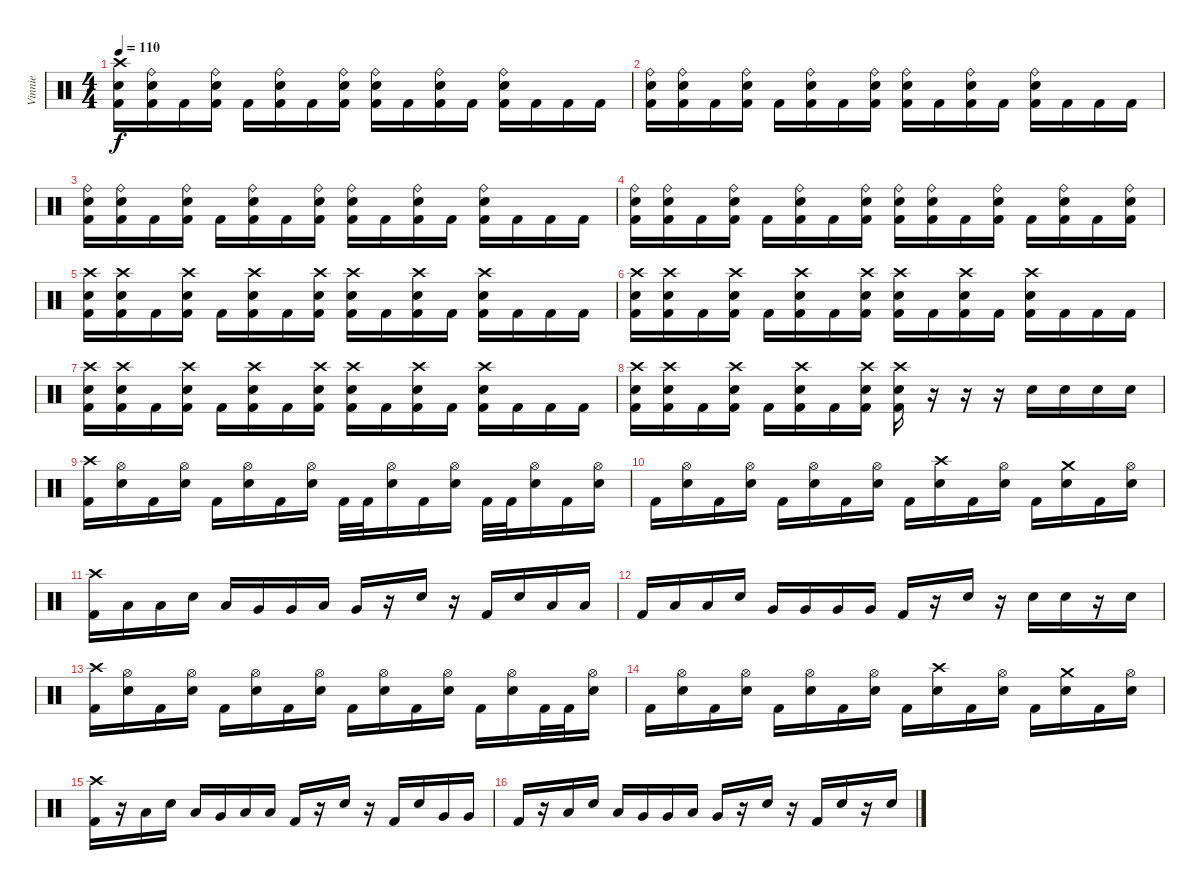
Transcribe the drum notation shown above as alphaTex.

\track ("Vinnie" "Vinnie") {instrument percussion}
\staff {score}
\articulation defaults
\ts (4 4)
\tempo 110
\clef neutral
\ks c
("Crash high (hit)" "Electric Snare (hit)" "Kick (hit) 2").16{dy f} ("Ride (bell)" "Electric Snare (hit)" "Kick (hit) 2").16 "Kick (hit) 2".16 ("Ride (bell)" "Electric Snare (hit)" "Kick (hit) 2").16 "Kick (hit) 2".16 ("Ride (bell)" "Electric Snare (hit)" "Kick (hit) 2").16 "Kick (hit) 2".16 ("Ride (bell)" "Electric Snare (hit)" "Kick (hit) 2").16 ("Ride (bell)" "Electric Snare (hit)" "Kick (hit) 2").16 "Kick (hit) 2".16 ("Ride (bell)" "Electric Snare (hit)" "Kick (hit) 2").16 "Kick (hit) 2".16 ("Ride (bell)" "Electric Snare (hit)" "Kick (hit) 2").16 "Kick (hit) 2".16 "Kick (hit) 2".16 "Kick (hit) 2".16 |
("Ride (bell)" "Electric Snare (hit)" "Kick (hit) 2").16 ("Ride (bell)" "Electric Snare (hit)" "Kick (hit) 2").16 "Kick (hit) 2".16 ("Ride (bell)" "Electric Snare (hit)" "Kick (hit) 2").16 "Kick (hit) 2".16 ("Ride (bell)" "Electric Snare (hit)" "Kick (hit) 2").16 "Kick (hit) 2".16 ("Ride (bell)" "Electric Snare (hit)" "Kick (hit) 2").16 ("Ride (bell)" "Electric Snare (hit)" "Kick (hit) 2").16 "Kick (hit) 2".16 ("Ride (bell)" "Electric Snare (hit)" "Kick (hit) 2").16 "Kick (hit) 2".16 ("Ride (bell)" "Electric Snare (hit)" "Kick (hit) 2").16 "Kick (hit) 2".16 "Kick (hit) 2".16 "Kick (hit) 2".16 |
("Ride (bell)" "Electric Snare (hit)" "Kick (hit) 2").16 ("Ride (bell)" "Electric Snare (hit)" "Kick (hit) 2").16 "Kick (hit) 2".16 ("Ride (bell)" "Electric Snare (hit)" "Kick (hit) 2").16 "Kick (hit) 2".16 ("Ride (bell)" "Electric Snare (hit)" "Kick (hit) 2").16 "Kick (hit) 2".16 ("Ride (bell)" "Electric Snare (hit)" "Kick (hit) 2").16 ("Ride (bell)" "Electric Snare (hit)" "Kick (hit) 2").16 "Kick (hit) 2".16 ("Ride (bell)" "Electric Snare (hit)" "Kick (hit) 2").16 "Kick (hit) 2".16 ("Ride (bell)" "Electric Snare (hit)" "Kick (hit) 2").16 "Kick (hit) 2".16 "Kick (hit) 2".16 "Kick (hit) 2".16 |
("Ride (bell)" "Electric Snare (hit)" "Kick (hit) 2").16 ("Ride (bell)" "Electric Snare (hit)" "Kick (hit) 2").16 "Kick (hit) 2".16 ("Ride (bell)" "Electric Snare (hit)" "Kick (hit) 2").16 "Kick (hit) 2".16 ("Ride (bell)" "Electric Snare (hit)" "Kick (hit) 2").16 "Kick (hit) 2".16 ("Ride (bell)" "Electric Snare (hit)" "Kick (hit) 2").16 ("Ride (bell)" "Electric Snare (hit)" "Kick (hit) 2").16 ("Ride (bell)" "Electric Snare (hit)" "Kick (hit) 2").16 "Kick (hit) 2".16 ("Ride (bell)" "Electric Snare (hit)" "Kick (hit) 2").16 "Kick (hit) 2".16 ("Ride (bell)" "Electric Snare (hit)" "Kick (hit) 2").16 "Kick (hit) 2".16 ("Ride (bell)" "Electric Snare (hit)" "Kick (hit) 2").16 |
("Crash high (hit)" "Electric Snare (hit)" "Kick (hit) 2").16 ("Crash high (hit)" "Electric Snare (hit)" "Kick (hit) 2").16 "Kick (hit) 2".16 ("Crash high (hit)" "Electric Snare (hit)" "Kick (hit) 2").16 "Kick (hit) 2".16 ("Crash high (hit)" "Electric Snare (hit)" "Kick (hit) 2").16 "Kick (hit) 2".16 ("Crash high (hit)" "Electric Snare (hit)" "Kick (hit) 2").16 ("Crash high (hit)" "Electric Snare (hit)" "Kick (hit) 2").16 "Kick (hit) 2".16 ("Crash high (hit)" "Electric Snare (hit)" "Kick (hit) 2").16 "Kick (hit) 2".16 ("Crash high (hit)" "Electric Snare (hit)" "Kick (hit) 2").16 "Kick (hit) 2".16 "Kick (hit) 2".16 "Kick (hit) 2".16 |
("Crash high (hit)" "Electric Snare (hit)" "Kick (hit) 2").16 ("Crash high (hit)" "Electric Snare (hit)" "Kick (hit) 2").16 "Kick (hit) 2".16 ("Crash high (hit)" "Electric Snare (hit)" "Kick (hit) 2").16 "Kick (hit) 2".16 ("Crash high (hit)" "Electric Snare (hit)" "Kick (hit) 2").16 "Kick (hit) 2".16 ("Crash high (hit)" "Electric Snare (hit)" "Kick (hit) 2").16 ("Crash high (hit)" "Electric Snare (hit)" "Kick (hit) 2").16 "Kick (hit) 2".16 ("Crash high (hit)" "Electric Snare (hit)" "Kick (hit) 2").16 "Kick (hit) 2".16 ("Crash high (hit)" "Electric Snare (hit)" "Kick (hit) 2").16 "Kick (hit) 2".16 "Kick (hit) 2".16 "Kick (hit) 2".16 |
("Crash high (hit)" "Electric Snare (hit)" "Kick (hit) 2").16 ("Crash high (hit)" "Electric Snare (hit)" "Kick (hit) 2").16 "Kick (hit) 2".16 ("Crash high (hit)" "Electric Snare (hit)" "Kick (hit) 2").16 "Kick (hit) 2".16 ("Crash high (hit)" "Electric Snare (hit)" "Kick (hit) 2").16 "Kick (hit) 2".16 ("Crash high (hit)" "Electric Snare (hit)" "Kick (hit) 2").16 ("Crash high (hit)" "Electric Snare (hit)" "Kick (hit) 2").16 "Kick (hit) 2".16 ("Crash high (hit)" "Electric Snare (hit)" "Kick (hit) 2").16 "Kick (hit) 2".16 ("Crash high (hit)" "Electric Snare (hit)" "Kick (hit) 2").16 "Kick (hit) 2".16 "Kick (hit) 2".16 "Kick (hit) 2".16 |
("Crash high (hit)" "Electric Snare (hit)" "Kick (hit) 2").16 ("Crash high (hit)" "Electric Snare (hit)" "Kick (hit) 2").16 "Kick (hit) 2".16 ("Crash high (hit)" "Electric Snare (hit)" "Kick (hit) 2").16 "Kick (hit) 2".16 ("Crash high (hit)" "Electric Snare (hit)" "Kick (hit) 2").16 "Kick (hit) 2".16 ("Crash high (hit)" "Electric Snare (hit)" "Kick (hit) 2").16 ("Crash high (hit)" "Electric Snare (hit)" "Kick (hit) 2").16 r.16 r.16 r.16 "Electric Snare (hit)".16 "Electric Snare (hit)".16 "Electric Snare (hit)".16 "Electric Snare (hit)".16 |
("Crash high (hit)" "Kick (hit) 2").16 ("Hi-Hat (open)" "Electric Snare (hit)").16 "Kick (hit) 2".16 ("Hi-Hat (open)" "Electric Snare (hit)").16 "Kick (hit) 2".16 ("Hi-Hat (open)" "Electric Snare (hit)").16 "Kick (hit) 2".16 ("Hi-Hat (open)" "Electric Snare (hit)").16 "Kick (hit) 2".32 "Kick (hit) 2".32 ("Hi-Hat (open)" "Electric Snare (hit)").16 "Kick (hit) 2".16 ("Hi-Hat (open)" "Electric Snare (hit)").16 "Kick (hit) 2".32 "Kick (hit) 2".32 ("Hi-Hat (open)" "Electric Snare (hit)").16 "Kick (hit) 2".16 ("Hi-Hat (open)" "Electric Snare (hit)").16 |
"Kick (hit) 2".16 ("Hi-Hat (open)" "Electric Snare (hit)").16 "Kick (hit) 2".16 ("Hi-Hat (open)" "Electric Snare (hit)").16 "Kick (hit) 2".16 ("Hi-Hat (open)" "Electric Snare (hit)").16 "Kick (hit) 2".16 ("Hi-Hat (open)" "Electric Snare (hit)").16 "Kick (hit) 2".16 ("Crash high (hit)" "Electric Snare (hit)").16 "Kick (hit) 2".16 ("Hi-Hat (open)" "Electric Snare (hit)").16 "Kick (hit) 2".16 ("Crash medium (hit)" "Electric Snare (hit)").16 "Kick (hit) 2".16 ("Hi-Hat (open)" "Electric Snare (hit)").16 |
("Crash high (hit)" "Kick (hit) 2").16 "Low Floor Tom (hit)".16 "Low Floor Tom (hit)".16 "Electric Snare (hit)".16 "Low Floor Tom (hit)".16 "Very Low Tom (hit)".16 "Very Low Tom (hit)".16 "Low Floor Tom (hit)".16 "Very Low Tom (hit)".16 r.16 "Electric Snare (hit)".16 r.16 "Kick (hit) 2".16 "Electric Snare (hit)".16 "Low Floor Tom (hit)".16 "Low Floor Tom (hit)".16 |
"Kick (hit) 2".16 "Low Floor Tom (hit)".16 "Low Floor Tom (hit)".16 "Electric Snare (hit)".16 "Very Low Tom (hit)".16 "Very Low Tom (hit)".16 "Very Low Tom (hit)".16 "Very Low Tom (hit)".16 "Kick (hit) 2".16 r.16 "Electric Snare (hit)".16 r.16 "Electric Snare (hit)".16 "Electric Snare (hit)".16 r.16 "Electric Snare (hit)".16 |
("Crash high (hit)" "Kick (hit) 2").16 ("Hi-Hat (open)" "Electric Snare (hit)").16 "Kick (hit) 2".16 ("Hi-Hat (open)" "Electric Snare (hit)").16 "Kick (hit) 2".16 ("Hi-Hat (open)" "Electric Snare (hit)").16 "Kick (hit) 2".16 ("Hi-Hat (open)" "Electric Snare (hit)").16 "Kick (hit) 2".16 ("Hi-Hat (open)" "Electric Snare (hit)").16 "Kick (hit) 2".16 ("Hi-Hat (open)" "Electric Snare (hit)").16 "Kick (hit) 2".16 ("Hi-Hat (open)" "Electric Snare (hit)").16 "Kick (hit) 2".32 "Kick (hit) 2".32 ("Hi-Hat (open)" "Electric Snare (hit)").16 |
"Kick (hit) 2".16 ("Hi-Hat (open)" "Electric Snare (hit)").16 "Kick (hit) 2".16 ("Hi-Hat (open)" "Electric Snare (hit)").16 "Kick (hit) 2".16 ("Hi-Hat (open)" "Electric Snare (hit)").16 "Kick (hit) 2".16 ("Hi-Hat (open)" "Electric Snare (hit)").16 "Kick (hit) 2".16 ("Crash high (hit)" "Electric Snare (hit)").16 "Kick (hit) 2".16 ("Hi-Hat (open)" "Electric Snare (hit)").16 "Kick (hit) 2".16 ("Crash medium (hit)" "Electric Snare (hit)").16 "Kick (hit) 2".16 ("Hi-Hat (open)" "Electric Snare (hit)").16 |
("Crash high (hit)" "Kick (hit) 2").16 r.16 "Low Floor Tom (hit)".16 "Electric Snare (hit)".16 "Low Floor Tom (hit)".16 "Very Low Tom (hit)".16 "Low Floor Tom (hit)".16 "Low Floor Tom (hit)".16 "Kick (hit) 2".16 r.16 "Electric Snare (hit)".16 r.16 "Kick (hit) 2".16 "Electric Snare (hit)".16 "Very Low Tom (hit)".16 "Very Low Tom (hit)".16 |
"Kick (hit) 2".16 r.16 "Low Floor Tom (hit)".16 "Electric Snare (hit)".16 "Low Floor Tom (hit)".16 "Very Low Tom (hit)".16 "Very Low Tom (hit)".16 "Low Floor Tom (hit)".16 "Very Low Tom (hit)".16 r.16 "Electric Snare (hit)".16 r.16 "Kick (hit) 2".16 "Electric Snare (hit)".16 r.16 "Electric Snare (hit)".16
